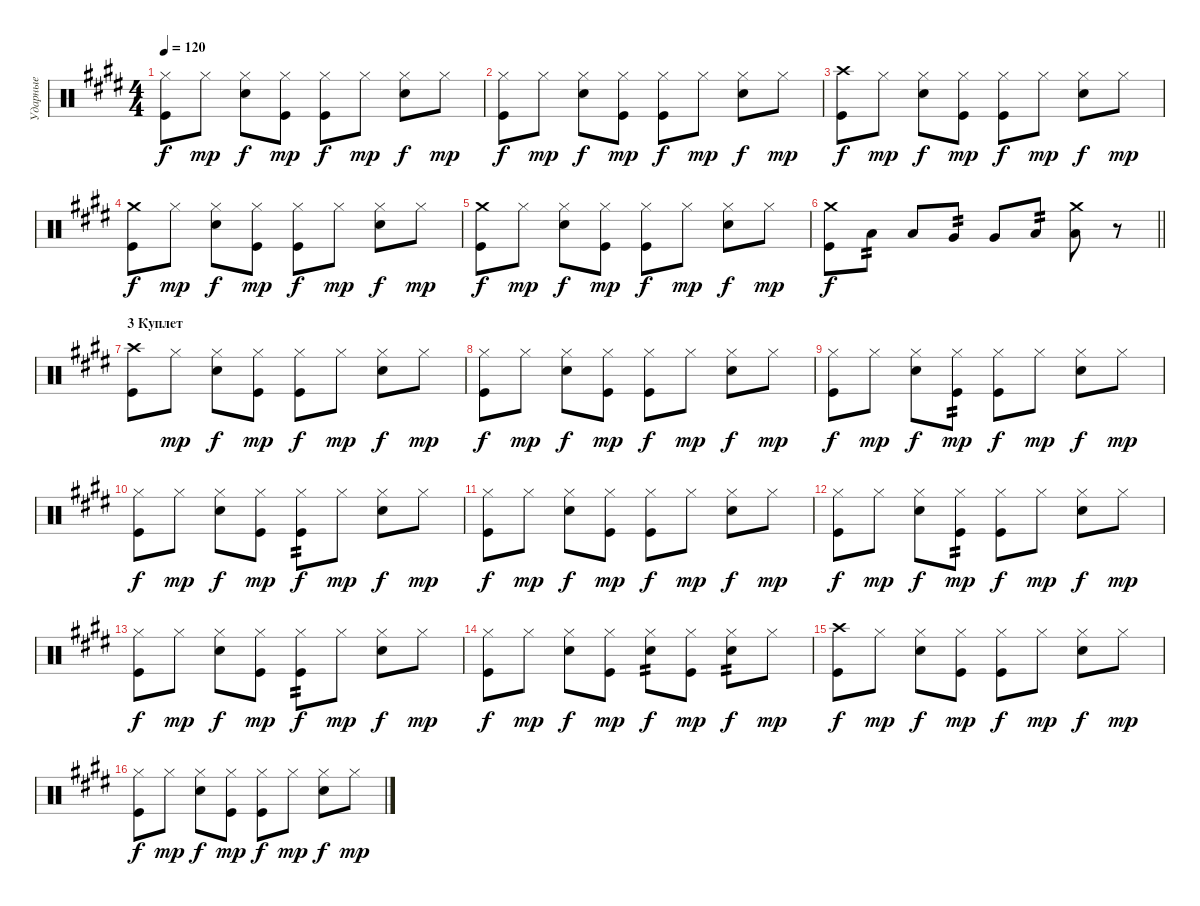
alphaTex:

\track ("Ударные" "Ударные") {instrument percussion}
\staff {score}
\articulation defaults
\ts (4 4)
\tempo 120
\clef neutral
\ks e
("Hi-Hat (closed)" "Kick (hit)").8{dy f} "Hi-Hat (closed)".8{dy mp} ("Hi-Hat (closed)" "Snare (hit) 2").8{dy f} ("Hi-Hat (closed)" "Kick (hit)").8{dy mp} ("Hi-Hat (closed)" "Kick (hit)").8{dy f} "Hi-Hat (closed)".8{dy mp} ("Hi-Hat (closed)" "Snare (hit) 2").8{dy f} "Hi-Hat (closed)".8{dy mp} |
("Hi-Hat (closed)" "Kick (hit)").8{dy f} "Hi-Hat (closed)".8{dy mp} ("Hi-Hat (closed)" "Snare (hit) 2").8{dy f} ("Hi-Hat (closed)" "Kick (hit)").8{dy mp} ("Hi-Hat (closed)" "Kick (hit)").8{dy f} "Hi-Hat (closed)".8{dy mp} ("Hi-Hat (closed)" "Snare (hit) 2").8{dy f} "Hi-Hat (closed)".8{dy mp} |
("Crash high (hit)" "Kick (hit)").8{dy f} "Hi-Hat (closed)".8{dy mp} ("Hi-Hat (closed)" "Snare (hit) 2").8{dy f} ("Hi-Hat (closed)" "Kick (hit)").8{dy mp} ("Hi-Hat (closed)" "Kick (hit)").8{dy f} "Hi-Hat (closed)".8{dy mp} ("Hi-Hat (closed)" "Snare (hit) 2").8{dy f} "Hi-Hat (closed)".8{dy mp} |
("Crash medium (hit)" "Kick (hit)").8{dy f} "Hi-Hat (closed)".8{dy mp} ("Hi-Hat (closed)" "Snare (hit) 2").8{dy f} ("Hi-Hat (closed)" "Kick (hit)").8{dy mp} ("Hi-Hat (closed)" "Kick (hit)").8{dy f} "Hi-Hat (closed)".8{dy mp} ("Hi-Hat (closed)" "Snare (hit) 2").8{dy f} "Hi-Hat (closed)".8{dy mp} |
("Crash medium (hit)" "Kick (hit)").8{dy f} "Hi-Hat (closed)".8{dy mp} ("Hi-Hat (closed)" "Snare (hit) 2").8{dy f} ("Hi-Hat (closed)" "Kick (hit)").8{dy mp} ("Hi-Hat (closed)" "Kick (hit)").8{dy f} "Hi-Hat (closed)".8{dy mp} ("Hi-Hat (closed)" "Snare (hit) 2").8{dy f} "Hi-Hat (closed)".8{dy mp} |
\barLineRight lightlight
("Crash medium (hit)" "Kick (hit)").8{dy f} "Low Tom (hit)".8{tp 2} "Low Tom (hit)".8 "Very Low Tom (hit)".8{tp 2} "Very Low Tom (hit)".8 "Low Floor Tom (hit)".8{tp 2} ("Crash medium (hit)" "Low Floor Tom (hit)").8 r.8 |
\section ("" "3 Куплет")
("Crash high (hit)" "Kick (hit)").8 "Hi-Hat (closed)".8{dy mp} ("Hi-Hat (closed)" "Snare (hit) 2").8{dy f} ("Hi-Hat (closed)" "Kick (hit)").8{dy mp} ("Hi-Hat (closed)" "Kick (hit)").8{dy f} "Hi-Hat (closed)".8{dy mp} ("Hi-Hat (closed)" "Snare (hit) 2").8{dy f} "Hi-Hat (closed)".8{dy mp} |
("Hi-Hat (closed)" "Kick (hit)").8{dy f} "Hi-Hat (closed)".8{dy mp} ("Hi-Hat (closed)" "Snare (hit) 2").8{dy f} ("Hi-Hat (closed)" "Kick (hit)").8{dy mp} ("Hi-Hat (closed)" "Kick (hit)").8{dy f} "Hi-Hat (closed)".8{dy mp} ("Hi-Hat (closed)" "Snare (hit) 2").8{dy f} "Hi-Hat (closed)".8{dy mp} |
("Hi-Hat (closed)" "Kick (hit)").8{dy f} "Hi-Hat (closed)".8{dy mp} ("Hi-Hat (closed)" "Snare (hit) 2").8{dy f} ("Hi-Hat (closed)" "Kick (hit)").8{tp 2 dy mp} ("Hi-Hat (closed)" "Kick (hit)").8{dy f} "Hi-Hat (closed)".8{dy mp} ("Hi-Hat (closed)" "Snare (hit) 2").8{dy f} "Hi-Hat (closed)".8{dy mp} |
("Hi-Hat (closed)" "Kick (hit)").8{dy f} "Hi-Hat (closed)".8{dy mp} ("Hi-Hat (closed)" "Snare (hit) 2").8{dy f} ("Hi-Hat (closed)" "Kick (hit)").8{dy mp} ("Hi-Hat (closed)" "Kick (hit)").8{tp 2 dy f} "Hi-Hat (closed)".8{dy mp} ("Hi-Hat (closed)" "Snare (hit) 2").8{dy f} "Hi-Hat (closed)".8{dy mp} |
("Hi-Hat (closed)" "Kick (hit)").8{dy f} "Hi-Hat (closed)".8{dy mp} ("Hi-Hat (closed)" "Snare (hit) 2").8{dy f} ("Hi-Hat (closed)" "Kick (hit)").8{dy mp} ("Hi-Hat (closed)" "Kick (hit)").8{dy f} "Hi-Hat (closed)".8{dy mp} ("Hi-Hat (closed)" "Snare (hit) 2").8{dy f} "Hi-Hat (closed)".8{dy mp} |
("Hi-Hat (closed)" "Kick (hit)").8{dy f} "Hi-Hat (closed)".8{dy mp} ("Hi-Hat (closed)" "Snare (hit) 2").8{dy f} ("Hi-Hat (closed)" "Kick (hit)").8{tp 2 dy mp} ("Hi-Hat (closed)" "Kick (hit)").8{dy f} "Hi-Hat (closed)".8{dy mp} ("Hi-Hat (closed)" "Snare (hit) 2").8{dy f} "Hi-Hat (closed)".8{dy mp} |
("Hi-Hat (closed)" "Kick (hit)").8{dy f} "Hi-Hat (closed)".8{dy mp} ("Hi-Hat (closed)" "Snare (hit) 2").8{dy f} ("Hi-Hat (closed)" "Kick (hit)").8{dy mp} ("Hi-Hat (closed)" "Kick (hit)").8{tp 2 dy f} "Hi-Hat (closed)".8{dy mp} ("Hi-Hat (closed)" "Snare (hit) 2").8{dy f} "Hi-Hat (closed)".8{dy mp} |
("Hi-Hat (closed)" "Kick (hit)").8{dy f} "Hi-Hat (closed)".8{dy mp} ("Hi-Hat (closed)" "Snare (hit) 2").8{dy f} ("Hi-Hat (closed)" "Kick (hit)").8{dy mp} ("Hi-Hat (closed)" "Snare (hit) 2").8{tp 2 dy f} ("Hi-Hat (closed)" "Kick (hit)").8{dy mp} ("Hi-Hat (closed)" "Snare (hit) 2").8{tp 2 dy f} "Hi-Hat (closed)".8{dy mp} |
("Crash high (hit)" "Kick (hit)").8{dy f} "Hi-Hat (closed)".8{dy mp} ("Hi-Hat (closed)" "Snare (hit) 2").8{dy f} ("Hi-Hat (closed)" "Kick (hit)").8{dy mp} ("Hi-Hat (closed)" "Kick (hit)").8{dy f} "Hi-Hat (closed)".8{dy mp} ("Hi-Hat (closed)" "Snare (hit) 2").8{dy f} "Hi-Hat (closed)".8{dy mp} |
("Hi-Hat (closed)" "Kick (hit)").8{dy f} "Hi-Hat (closed)".8{dy mp} ("Hi-Hat (closed)" "Snare (hit) 2").8{dy f} ("Hi-Hat (closed)" "Kick (hit)").8{dy mp} ("Hi-Hat (closed)" "Kick (hit)").8{dy f} "Hi-Hat (closed)".8{dy mp} ("Hi-Hat (closed)" "Snare (hit) 2").8{dy f} "Hi-Hat (closed)".8{dy mp}
